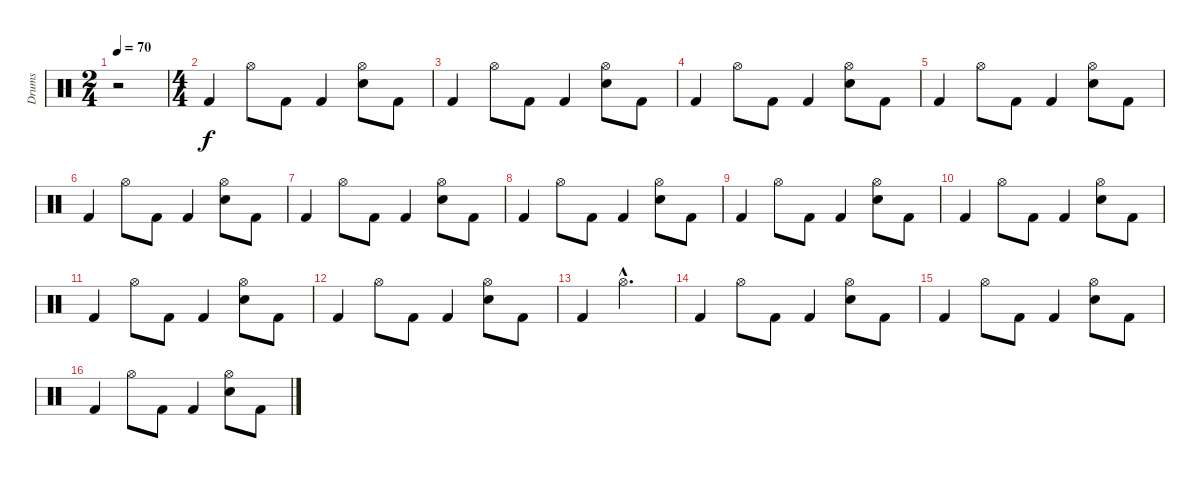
\track ("Drums" "Drums") {instrument percussion}
\staff {score}
\articulation defaults
\ts (2 4)
\tempo 70
\clef neutral
\ks c
r.2{dy f} |
\ts (4 4)
"Kick (hit) 2".4 "Hi-Hat (open)".8 "Kick (hit) 2".8 "Kick (hit) 2".4 ("Hi-Hat (open)" "Electric Snare (hit)").8 "Kick (hit) 2".8 |
"Kick (hit) 2".4 "Hi-Hat (open)".8 "Kick (hit) 2".8 "Kick (hit) 2".4 ("Hi-Hat (open)" "Electric Snare (hit)").8 "Kick (hit) 2".8 |
"Kick (hit) 2".4 "Hi-Hat (open)".8 "Kick (hit) 2".8 "Kick (hit) 2".4 ("Hi-Hat (open)" "Electric Snare (hit)").8 "Kick (hit) 2".8 |
"Kick (hit) 2".4 "Hi-Hat (open)".8 "Kick (hit) 2".8 "Kick (hit) 2".4 ("Hi-Hat (open)" "Electric Snare (hit)").8 "Kick (hit) 2".8 |
"Kick (hit) 2".4 "Hi-Hat (open)".8 "Kick (hit) 2".8 "Kick (hit) 2".4 ("Hi-Hat (open)" "Electric Snare (hit)").8 "Kick (hit) 2".8 |
"Kick (hit) 2".4 "Hi-Hat (open)".8 "Kick (hit) 2".8 "Kick (hit) 2".4 ("Hi-Hat (open)" "Electric Snare (hit)").8 "Kick (hit) 2".8 |
"Kick (hit) 2".4 "Hi-Hat (open)".8 "Kick (hit) 2".8 "Kick (hit) 2".4 ("Hi-Hat (open)" "Electric Snare (hit)").8 "Kick (hit) 2".8 |
"Kick (hit) 2".4 "Hi-Hat (open)".8 "Kick (hit) 2".8 "Kick (hit) 2".4 ("Hi-Hat (open)" "Electric Snare (hit)").8 "Kick (hit) 2".8 |
"Kick (hit) 2".4 "Hi-Hat (open)".8 "Kick (hit) 2".8 "Kick (hit) 2".4 ("Hi-Hat (open)" "Electric Snare (hit)").8 "Kick (hit) 2".8 |
"Kick (hit) 2".4 "Hi-Hat (open)".8 "Kick (hit) 2".8 "Kick (hit) 2".4 ("Hi-Hat (open)" "Electric Snare (hit)").8 "Kick (hit) 2".8 |
"Kick (hit) 2".4 "Hi-Hat (open)".8 "Kick (hit) 2".8 "Kick (hit) 2".4 ("Hi-Hat (open)" "Electric Snare (hit)").8 "Kick (hit) 2".8 |
"Kick (hit) 2".4 "Hi-Hat (open)"{hac}.2{d} |
"Kick (hit) 2".4 "Hi-Hat (open)".8 "Kick (hit) 2".8 "Kick (hit) 2".4 ("Hi-Hat (open)" "Electric Snare (hit)").8 "Kick (hit) 2".8 |
"Kick (hit) 2".4 "Hi-Hat (open)".8 "Kick (hit) 2".8 "Kick (hit) 2".4 ("Hi-Hat (open)" "Electric Snare (hit)").8 "Kick (hit) 2".8 |
"Kick (hit) 2".4 "Hi-Hat (open)".8 "Kick (hit) 2".8 "Kick (hit) 2".4 ("Hi-Hat (open)" "Electric Snare (hit)").8 "Kick (hit) 2".8
